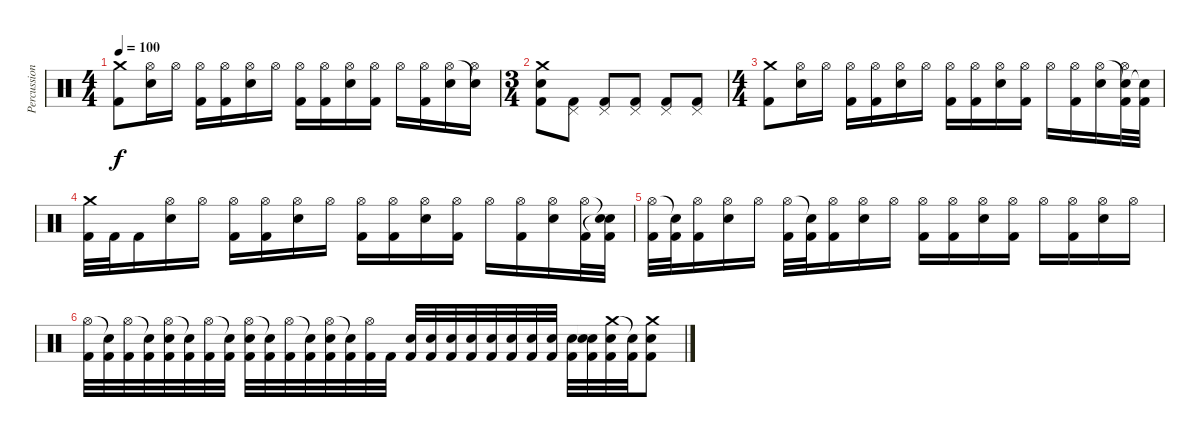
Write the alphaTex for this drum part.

\track ("Percussion" "Percussion") {instrument percussion}
\staff {score}
\articulation defaults
\ts (4 4)
\tempo 100
\clef neutral
\ks c
("Crash medium (hit)" "Kick (hit) 2").8{dy f} ("Hi-Hat (open)" "Electric Snare (hit)").16 "Hi-Hat (open)".16 ("Hi-Hat (open)" "Kick (hit) 2").16 ("Hi-Hat (open)" "Kick (hit) 2").16 ("Hi-Hat (open)" "Electric Snare (hit)").16 "Hi-Hat (open)".16 ("Hi-Hat (open)" "Kick (hit) 2").16 ("Hi-Hat (open)" "Kick (hit) 2").16 ("Hi-Hat (open)" "Electric Snare (hit)").16 ("Hi-Hat (open)" "Kick (hit) 2").16 "Hi-Hat (open)".16 ("Hi-Hat (open)" "Kick (hit) 2").16 ("Hi-Hat (open)" "Electric Snare (hit)").16 ("Snare (hit)"{t} "Hi-Hat (open)").16 |
\ts (3 4)
("Crash medium (hit)" "Electric Snare (hit)" "Kick (hit) 2").8 ("Pedal Hi-Hat (hit)" "Kick (hit) 2").8 ("Pedal Hi-Hat (hit)" "Kick (hit) 2").8 ("Pedal Hi-Hat (hit)" "Kick (hit) 2").8 ("Pedal Hi-Hat (hit)" "Kick (hit) 2").8 ("Pedal Hi-Hat (hit)" "Kick (hit) 2").8 |
\ts (4 4)
("Crash medium (hit)" "Kick (hit) 2").8 ("Hi-Hat (open)" "Electric Snare (hit)").16 "Hi-Hat (open)".16 ("Hi-Hat (open)" "Kick (hit) 2").16 ("Hi-Hat (open)" "Kick (hit) 2").16 ("Hi-Hat (open)" "Electric Snare (hit)").16 "Hi-Hat (open)".16 ("Hi-Hat (open)" "Kick (hit) 2").16 ("Hi-Hat (open)" "Kick (hit) 2").16 ("Hi-Hat (open)" "Electric Snare (hit)").16 ("Hi-Hat (open)" "Kick (hit) 2").16 "Hi-Hat (open)".16 ("Hi-Hat (open)" "Kick (hit) 2").16 ("Hi-Hat (open)" "Electric Snare (hit)").16 ("Snare (hit)"{t} "Hi-Hat (open)" "Kick (hit) 2").32 ("Snare (hit)"{t} "Kick (hit) 2").32 |
("Crash medium (hit)" "Kick (hit) 2").32 "Kick (hit) 2".32 "Kick (hit) 2".16 ("Hi-Hat (open)" "Electric Snare (hit)").16 "Hi-Hat (open)".16 ("Hi-Hat (open)" "Kick (hit) 2").16 ("Hi-Hat (open)" "Kick (hit) 2").16 ("Hi-Hat (open)" "Electric Snare (hit)").16 "Hi-Hat (open)".16 ("Hi-Hat (open)" "Kick (hit) 2").16 ("Hi-Hat (open)" "Kick (hit) 2").16 ("Hi-Hat (open)" "Electric Snare (hit)").16 ("Hi-Hat (open)" "Kick (hit) 2").16 "Hi-Hat (open)".16 ("Hi-Hat (open)" "Kick (hit) 2").16 ("Hi-Hat (open)" "Electric Snare (hit)").16 ("Hi-Hat (open)" "Kick (hit) 2").32 ("Snare (hit)"{t} "Snare (hit)"{t} "Kick (hit) 2").32 |
("Hi-Hat (open)" "Kick (hit) 2").32 ("Snare (hit)"{t} "Kick (hit) 2").32 ("Hi-Hat (open)" "Kick (hit) 2").16 ("Hi-Hat (open)" "Electric Snare (hit)").16 "Hi-Hat (open)".16 ("Hi-Hat (open)" "Kick (hit) 2").32 ("Snare (hit)"{t} "Kick (hit) 2").32 ("Hi-Hat (open)" "Kick (hit) 2").16 ("Hi-Hat (open)" "Electric Snare (hit)").16 "Hi-Hat (open)".16 ("Hi-Hat (open)" "Kick (hit) 2").16 ("Hi-Hat (open)" "Kick (hit) 2").16 ("Hi-Hat (open)" "Electric Snare (hit)").16 ("Hi-Hat (open)" "Kick (hit) 2").16 "Hi-Hat (open)".16 ("Hi-Hat (open)" "Kick (hit) 2").16 ("Hi-Hat (open)" "Electric Snare (hit)").16 "Hi-Hat (open)".16 |
("Hi-Hat (open)" "Kick (hit) 2").32 ("Snare (hit)"{t} "Kick (hit) 2").32 ("Hi-Hat (open)" "Kick (hit) 2").32 ("Snare (hit)"{t} "Kick (hit) 2").32 ("Hi-Hat (open)" "Electric Snare (hit)" "Kick (hit) 2").32 ("Snare (hit)"{t} "Kick (hit) 2").32 ("Hi-Hat (open)" "Kick (hit) 2").32 ("Snare (hit)"{t} "Kick (hit) 2").32 ("Hi-Hat (open)" "Electric Snare (hit)" "Kick (hit) 2").32 ("Snare (hit)"{t} "Kick (hit) 2").32 ("Hi-Hat (open)" "Kick (hit) 2").32 ("Snare (hit)"{t} "Kick (hit) 2").32 ("Hi-Hat (open)" "Electric Snare (hit)" "Kick (hit) 2").32 ("Snare (hit)"{t} "Kick (hit) 2").32 ("Hi-Hat (open)" "Kick (hit) 2").32 "Kick (hit) 2".32 ("Electric Snare (hit)" "Kick (hit) 2").32 ("Electric Snare (hit)" "Kick (hit) 2").32 ("Electric Snare (hit)" "Kick (hit) 2").32 ("Electric Snare (hit)" "Kick (hit) 2").32 ("Electric Snare (hit)" "Kick (hit) 2").32 ("Electric Snare (hit)" "Kick (hit) 2").32 ("Electric Snare (hit)" "Kick (hit) 2").32 ("Electric Snare (hit)" "Kick (hit) 2").32 ("Electric Snare (hit)" "Kick (hit) 2").32 ("Snare (hit)"{t} "Electric Snare (hit)" "Kick (hit) 2").32 ("Crash medium (hit)" "Electric Snare (hit)" "Kick (hit) 2").32 ("Snare (hit)"{t} "Kick (hit) 2").32 ("Crash medium (hit)" "Electric Snare (hit)" "Kick (hit) 2").8
